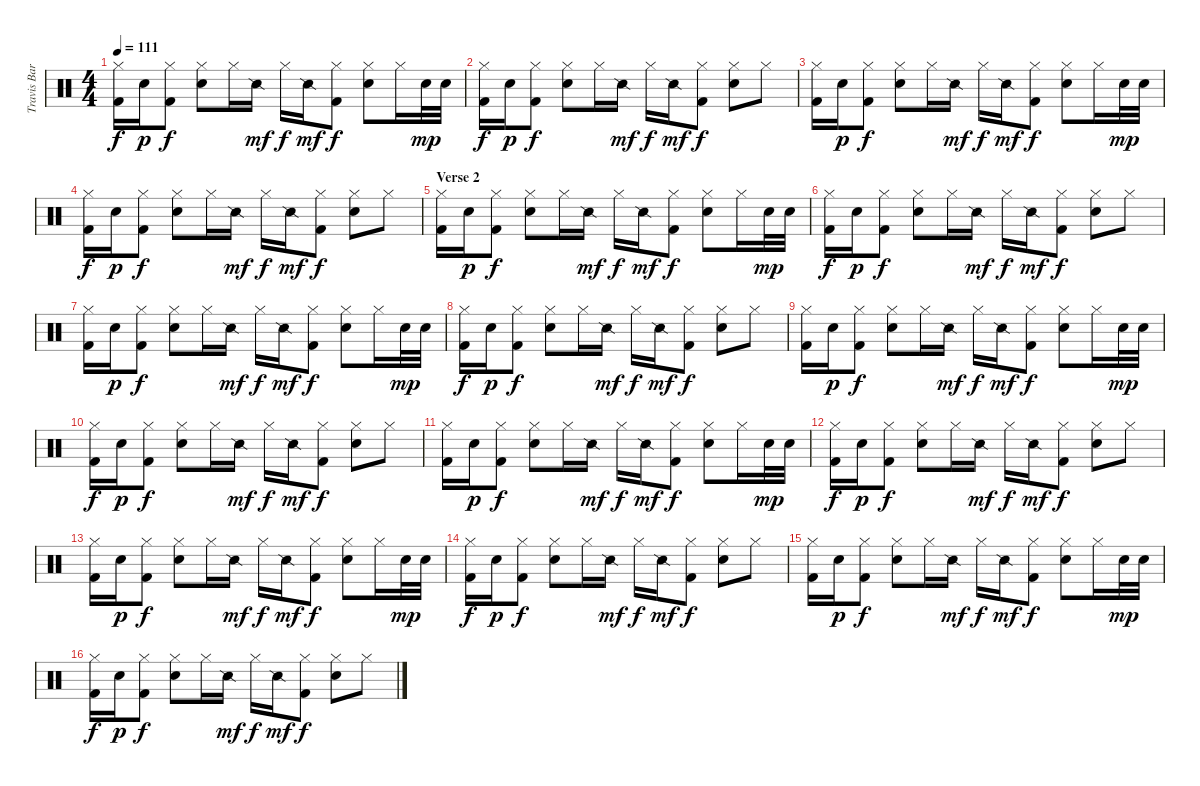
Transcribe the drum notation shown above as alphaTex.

\track ("Travis Barker - Drums" "Travis Bar") {instrument percussion}
\staff {score}
\articulation defaults
\ts (4 4)
\tempo 111
\clef neutral
\ks c
("Hi-Hat (closed)" "Kick (hit) 2").16{dy f} "Electric Snare (hit)".16{dy p} ("Hi-Hat (closed)" "Kick (hit) 2").8{dy f} ("Hi-Hat (closed)" "Electric Snare (hit)").8 "Hi-Hat (closed)".16 "Snare (side stick) 2".16{dy mf} "Hi-Hat (closed)".16{dy f} "Snare (side stick) 2".16{dy mf} ("Hi-Hat (closed)" "Kick (hit) 2").8{dy f} ("Hi-Hat (closed)" "Electric Snare (hit)").8 "Hi-Hat (closed)".16 "Electric Snare (hit)".32{dy mp} "Electric Snare (hit)".32 |
("Hi-Hat (closed)" "Kick (hit) 2").16{dy f} "Electric Snare (hit)".16{dy p} ("Hi-Hat (closed)" "Kick (hit) 2").8{dy f} ("Hi-Hat (closed)" "Electric Snare (hit)").8 "Hi-Hat (closed)".16 "Snare (side stick) 2".16{dy mf} "Hi-Hat (closed)".16{dy f} "Snare (side stick) 2".16{dy mf} ("Hi-Hat (closed)" "Kick (hit) 2").8{dy f} ("Hi-Hat (closed)" "Electric Snare (hit)").8 "Hi-Hat (closed)".8 |
("Hi-Hat (closed)" "Kick (hit) 2").16 "Electric Snare (hit)".16{dy p} ("Hi-Hat (closed)" "Kick (hit) 2").8{dy f} ("Hi-Hat (closed)" "Electric Snare (hit)").8 "Hi-Hat (closed)".16 "Snare (side stick) 2".16{dy mf} "Hi-Hat (closed)".16{dy f} "Snare (side stick) 2".16{dy mf} ("Hi-Hat (closed)" "Kick (hit) 2").8{dy f} ("Hi-Hat (closed)" "Electric Snare (hit)").8 "Hi-Hat (closed)".16 "Electric Snare (hit)".32{dy mp} "Electric Snare (hit)".32 |
("Hi-Hat (closed)" "Kick (hit) 2").16{dy f} "Electric Snare (hit)".16{dy p} ("Hi-Hat (closed)" "Kick (hit) 2").8{dy f} ("Hi-Hat (closed)" "Electric Snare (hit)").8 "Hi-Hat (closed)".16 "Snare (side stick) 2".16{dy mf} "Hi-Hat (closed)".16{dy f} "Snare (side stick) 2".16{dy mf} ("Hi-Hat (closed)" "Kick (hit) 2").8{dy f} ("Hi-Hat (closed)" "Electric Snare (hit)").8 "Hi-Hat (closed)".8 |
\section ("" "Verse 2")
("Hi-Hat (closed)" "Kick (hit) 2").16 "Electric Snare (hit)".16{dy p} ("Hi-Hat (closed)" "Kick (hit) 2").8{dy f} ("Hi-Hat (closed)" "Electric Snare (hit)").8 "Hi-Hat (closed)".16 "Snare (side stick) 2".16{dy mf} "Hi-Hat (closed)".16{dy f} "Snare (side stick) 2".16{dy mf} ("Hi-Hat (closed)" "Kick (hit) 2").8{dy f} ("Hi-Hat (closed)" "Electric Snare (hit)").8 "Hi-Hat (closed)".16 "Electric Snare (hit)".32{dy mp} "Electric Snare (hit)".32 |
("Hi-Hat (closed)" "Kick (hit) 2").16{dy f} "Electric Snare (hit)".16{dy p} ("Hi-Hat (closed)" "Kick (hit) 2").8{dy f} ("Hi-Hat (closed)" "Electric Snare (hit)").8 "Hi-Hat (closed)".16 "Snare (side stick) 2".16{dy mf} "Hi-Hat (closed)".16{dy f} "Snare (side stick) 2".16{dy mf} ("Hi-Hat (closed)" "Kick (hit) 2").8{dy f} ("Hi-Hat (closed)" "Electric Snare (hit)").8 "Hi-Hat (closed)".8 |
("Hi-Hat (closed)" "Kick (hit) 2").16 "Electric Snare (hit)".16{dy p} ("Hi-Hat (closed)" "Kick (hit) 2").8{dy f} ("Hi-Hat (closed)" "Electric Snare (hit)").8 "Hi-Hat (closed)".16 "Snare (side stick) 2".16{dy mf} "Hi-Hat (closed)".16{dy f} "Snare (side stick) 2".16{dy mf} ("Hi-Hat (closed)" "Kick (hit) 2").8{dy f} ("Hi-Hat (closed)" "Electric Snare (hit)").8 "Hi-Hat (closed)".16 "Electric Snare (hit)".32{dy mp} "Electric Snare (hit)".32 |
("Hi-Hat (closed)" "Kick (hit) 2").16{dy f} "Electric Snare (hit)".16{dy p} ("Hi-Hat (closed)" "Kick (hit) 2").8{dy f} ("Hi-Hat (closed)" "Electric Snare (hit)").8 "Hi-Hat (closed)".16 "Snare (side stick) 2".16{dy mf} "Hi-Hat (closed)".16{dy f} "Snare (side stick) 2".16{dy mf} ("Hi-Hat (closed)" "Kick (hit) 2").8{dy f} ("Hi-Hat (closed)" "Electric Snare (hit)").8 "Hi-Hat (closed)".8 |
("Hi-Hat (closed)" "Kick (hit) 2").16 "Electric Snare (hit)".16{dy p} ("Hi-Hat (closed)" "Kick (hit) 2").8{dy f} ("Hi-Hat (closed)" "Electric Snare (hit)").8 "Hi-Hat (closed)".16 "Snare (side stick) 2".16{dy mf} "Hi-Hat (closed)".16{dy f} "Snare (side stick) 2".16{dy mf} ("Hi-Hat (closed)" "Kick (hit) 2").8{dy f} ("Hi-Hat (closed)" "Electric Snare (hit)").8 "Hi-Hat (closed)".16 "Electric Snare (hit)".32{dy mp} "Electric Snare (hit)".32 |
("Hi-Hat (closed)" "Kick (hit) 2").16{dy f} "Electric Snare (hit)".16{dy p} ("Hi-Hat (closed)" "Kick (hit) 2").8{dy f} ("Hi-Hat (closed)" "Electric Snare (hit)").8 "Hi-Hat (closed)".16 "Snare (side stick) 2".16{dy mf} "Hi-Hat (closed)".16{dy f} "Snare (side stick) 2".16{dy mf} ("Hi-Hat (closed)" "Kick (hit) 2").8{dy f} ("Hi-Hat (closed)" "Electric Snare (hit)").8 "Hi-Hat (closed)".8 |
("Hi-Hat (closed)" "Kick (hit) 2").16 "Electric Snare (hit)".16{dy p} ("Hi-Hat (closed)" "Kick (hit) 2").8{dy f} ("Hi-Hat (closed)" "Electric Snare (hit)").8 "Hi-Hat (closed)".16 "Snare (side stick) 2".16{dy mf} "Hi-Hat (closed)".16{dy f} "Snare (side stick) 2".16{dy mf} ("Hi-Hat (closed)" "Kick (hit) 2").8{dy f} ("Hi-Hat (closed)" "Electric Snare (hit)").8 "Hi-Hat (closed)".16 "Electric Snare (hit)".32{dy mp} "Electric Snare (hit)".32 |
("Hi-Hat (closed)" "Kick (hit) 2").16{dy f} "Electric Snare (hit)".16{dy p} ("Hi-Hat (closed)" "Kick (hit) 2").8{dy f} ("Hi-Hat (closed)" "Electric Snare (hit)").8 "Hi-Hat (closed)".16 "Snare (side stick) 2".16{dy mf} "Hi-Hat (closed)".16{dy f} "Snare (side stick) 2".16{dy mf} ("Hi-Hat (closed)" "Kick (hit) 2").8{dy f} ("Hi-Hat (closed)" "Electric Snare (hit)").8 "Hi-Hat (closed)".8 |
("Hi-Hat (closed)" "Kick (hit) 2").16 "Electric Snare (hit)".16{dy p} ("Hi-Hat (closed)" "Kick (hit) 2").8{dy f} ("Hi-Hat (closed)" "Electric Snare (hit)").8 "Hi-Hat (closed)".16 "Snare (side stick) 2".16{dy mf} "Hi-Hat (closed)".16{dy f} "Snare (side stick) 2".16{dy mf} ("Hi-Hat (closed)" "Kick (hit) 2").8{dy f} ("Hi-Hat (closed)" "Electric Snare (hit)").8 "Hi-Hat (closed)".16 "Electric Snare (hit)".32{dy mp} "Electric Snare (hit)".32 |
("Hi-Hat (closed)" "Kick (hit) 2").16{dy f} "Electric Snare (hit)".16{dy p} ("Hi-Hat (closed)" "Kick (hit) 2").8{dy f} ("Hi-Hat (closed)" "Electric Snare (hit)").8 "Hi-Hat (closed)".16 "Snare (side stick) 2".16{dy mf} "Hi-Hat (closed)".16{dy f} "Snare (side stick) 2".16{dy mf} ("Hi-Hat (closed)" "Kick (hit) 2").8{dy f} ("Hi-Hat (closed)" "Electric Snare (hit)").8 "Hi-Hat (closed)".8 |
("Hi-Hat (closed)" "Kick (hit) 2").16 "Electric Snare (hit)".16{dy p} ("Hi-Hat (closed)" "Kick (hit) 2").8{dy f} ("Hi-Hat (closed)" "Electric Snare (hit)").8 "Hi-Hat (closed)".16 "Snare (side stick) 2".16{dy mf} "Hi-Hat (closed)".16{dy f} "Snare (side stick) 2".16{dy mf} ("Hi-Hat (closed)" "Kick (hit) 2").8{dy f} ("Hi-Hat (closed)" "Electric Snare (hit)").8 "Hi-Hat (closed)".16 "Electric Snare (hit)".32{dy mp} "Electric Snare (hit)".32 |
("Hi-Hat (closed)" "Kick (hit) 2").16{dy f} "Electric Snare (hit)".16{dy p} ("Hi-Hat (closed)" "Kick (hit) 2").8{dy f} ("Hi-Hat (closed)" "Electric Snare (hit)").8 "Hi-Hat (closed)".16 "Snare (side stick) 2".16{dy mf} "Hi-Hat (closed)".16{dy f} "Snare (side stick) 2".16{dy mf} ("Hi-Hat (closed)" "Kick (hit) 2").8{dy f} ("Hi-Hat (closed)" "Electric Snare (hit)").8 "Hi-Hat (closed)".8
